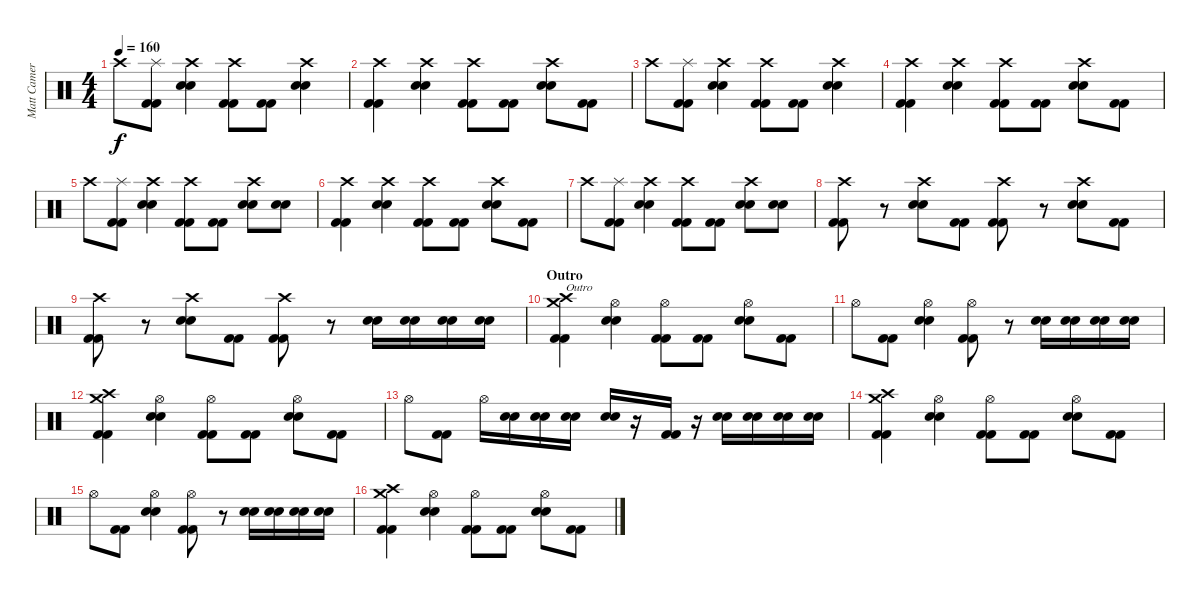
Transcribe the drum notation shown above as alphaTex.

\track ("Matt Cameron" "Matt Camer") {instrument percussion}
\staff {score}
\articulation defaults
\ts (4 4)
\tempo 160
\clef neutral
\ks c "Crash high (hit)".8{dy f}
("Kick (hit) 2" "Kick (hit) 2" "Splash (hit)").8 ("Electric Snare (hit)" "Electric Snare (hit)" "Crash high (hit)").4 ("Kick (hit) 2" "Kick (hit) 2" "Crash high (hit)").8 ("Kick (hit) 2" "Kick (hit) 2").8 ("Electric Snare (hit)" "Electric Snare (hit)" "Crash high (hit)").4 |
("Kick (hit) 2" "Kick (hit) 2" "Crash high (hit)").4 ("Electric Snare (hit)" "Electric Snare (hit)" "Crash high (hit)").4 ("Kick (hit) 2" "Kick (hit) 2" "Crash high (hit)").8 ("Kick (hit) 2" "Kick (hit) 2").8 ("Electric Snare (hit)" "Electric Snare (hit)" "Crash high (hit)").8 ("Kick (hit) 2" "Kick (hit) 2").8 |
"Crash high (hit)".8 ("Kick (hit) 2" "Kick (hit) 2" "Splash (hit)").8 ("Electric Snare (hit)" "Electric Snare (hit)" "Crash high (hit)").4 ("Kick (hit) 2" "Kick (hit) 2" "Crash high (hit)").8 ("Kick (hit) 2" "Kick (hit) 2").8 ("Electric Snare (hit)" "Electric Snare (hit)" "Crash high (hit)").4 |
("Kick (hit) 2" "Kick (hit) 2" "Crash high (hit)").4 ("Electric Snare (hit)" "Electric Snare (hit)" "Crash high (hit)").4 ("Kick (hit) 2" "Kick (hit) 2" "Crash high (hit)").8 ("Kick (hit) 2" "Kick (hit) 2").8 ("Electric Snare (hit)" "Electric Snare (hit)" "Crash high (hit)").8 ("Kick (hit) 2" "Kick (hit) 2").8 |
"Crash high (hit)".8 ("Kick (hit) 2" "Kick (hit) 2" "Splash (hit)").8 ("Electric Snare (hit)" "Electric Snare (hit)" "Crash high (hit)").4 ("Kick (hit) 2" "Kick (hit) 2" "Crash high (hit)").8 ("Kick (hit) 2" "Kick (hit) 2").8 ("Electric Snare (hit)" "Electric Snare (hit)" "Crash high (hit)").8 ("Electric Snare (hit)" "Electric Snare (hit)").8 |
("Kick (hit) 2" "Kick (hit) 2" "Crash high (hit)").4 ("Electric Snare (hit)" "Electric Snare (hit)" "Crash high (hit)").4 ("Kick (hit) 2" "Kick (hit) 2" "Crash high (hit)").8 ("Kick (hit) 2" "Kick (hit) 2").8 ("Electric Snare (hit)" "Electric Snare (hit)" "Crash high (hit)").8 ("Kick (hit) 2" "Kick (hit) 2").8 |
"Crash high (hit)".8 ("Kick (hit) 2" "Kick (hit) 2" "Splash (hit)").8 ("Electric Snare (hit)" "Electric Snare (hit)" "Crash high (hit)").4 ("Kick (hit) 2" "Kick (hit) 2" "Crash high (hit)").8 ("Kick (hit) 2" "Kick (hit) 2").8 ("Electric Snare (hit)" "Electric Snare (hit)" "Crash high (hit)").8 ("Electric Snare (hit)" "Electric Snare (hit)").8 |
("Kick (hit) 2" "Kick (hit) 2" "Crash high (hit)").8 r.8 ("Electric Snare (hit)" "Electric Snare (hit)" "Crash high (hit)").8 ("Kick (hit) 2" "Kick (hit) 2").8 ("Kick (hit) 2" "Kick (hit) 2" "Crash high (hit)").8 r.8 ("Electric Snare (hit)" "Electric Snare (hit)" "Crash high (hit)").8 ("Kick (hit) 2" "Kick (hit) 2").8 |
("Kick (hit) 2" "Kick (hit) 2" "Crash high (hit)").8 r.8 ("Electric Snare (hit)" "Electric Snare (hit)" "Crash high (hit)").8 ("Kick (hit) 2" "Kick (hit) 2").8 ("Kick (hit) 2" "Kick (hit) 2" "Crash high (hit)").8 r.8 ("Electric Snare (hit)" "Electric Snare (hit)").16 ("Electric Snare (hit)" "Electric Snare (hit)").16 ("Electric Snare (hit)" "Electric Snare (hit)").16 ("Electric Snare (hit)" "Electric Snare (hit)").16 |
\section ("" "Outro")
("Crash medium (hit)" "Kick (hit) 2" "Kick (hit) 2" "Crash high (hit)").4{txt "Outro"} ("Electric Snare (hit)" "Electric Snare (hit)" "Hi-Hat (open)").4 ("Kick (hit) 2" "Kick (hit) 2" "Hi-Hat (open)").8 ("Kick (hit) 2" "Kick (hit) 2").8 ("Electric Snare (hit)" "Electric Snare (hit)" "Hi-Hat (open)").8 ("Kick (hit) 2" "Kick (hit) 2").8 |
"Hi-Hat (open)".8 ("Kick (hit) 2" "Kick (hit) 2").8 ("Electric Snare (hit)" "Electric Snare (hit)" "Hi-Hat (open)").4 ("Kick (hit) 2" "Kick (hit) 2" "Hi-Hat (open)").8 r.8 ("Electric Snare (hit)" "Electric Snare (hit)").16 ("Electric Snare (hit)" "Electric Snare (hit)").16 ("Electric Snare (hit)" "Electric Snare (hit)").16 ("Electric Snare (hit)" "Electric Snare (hit)").16 |
("Crash medium (hit)" "Kick (hit) 2" "Kick (hit) 2" "Crash high (hit)").4 ("Electric Snare (hit)" "Electric Snare (hit)" "Hi-Hat (open)").4 ("Kick (hit) 2" "Kick (hit) 2" "Hi-Hat (open)").8 ("Kick (hit) 2" "Kick (hit) 2").8 ("Electric Snare (hit)" "Electric Snare (hit)" "Hi-Hat (open)").8 ("Kick (hit) 2" "Kick (hit) 2").8 |
"Hi-Hat (open)".8 ("Kick (hit) 2" "Kick (hit) 2").8 "Hi-Hat (open)".16 ("Electric Snare (hit)" "Electric Snare (hit)").16 ("Electric Snare (hit)" "Electric Snare (hit)").16 ("Electric Snare (hit)" "Electric Snare (hit)").16 ("Electric Snare (hit)" "Electric Snare (hit)").16 r.16 ("Kick (hit) 2" "Kick (hit) 2").16 r.16 ("Electric Snare (hit)" "Electric Snare (hit)").16 ("Electric Snare (hit)" "Electric Snare (hit)").16 ("Electric Snare (hit)" "Electric Snare (hit)").16 ("Electric Snare (hit)" "Electric Snare (hit)").16 |
("Crash medium (hit)" "Kick (hit) 2" "Kick (hit) 2" "Crash high (hit)").4 ("Electric Snare (hit)" "Electric Snare (hit)" "Hi-Hat (open)").4 ("Kick (hit) 2" "Kick (hit) 2" "Hi-Hat (open)").8 ("Kick (hit) 2" "Kick (hit) 2").8 ("Electric Snare (hit)" "Electric Snare (hit)" "Hi-Hat (open)").8 ("Kick (hit) 2" "Kick (hit) 2").8 |
"Hi-Hat (open)".8 ("Kick (hit) 2" "Kick (hit) 2").8 ("Electric Snare (hit)" "Electric Snare (hit)" "Hi-Hat (open)").4 ("Kick (hit) 2" "Kick (hit) 2" "Hi-Hat (open)").8 r.8 ("Electric Snare (hit)" "Electric Snare (hit)").16 ("Electric Snare (hit)" "Electric Snare (hit)").16 ("Electric Snare (hit)" "Electric Snare (hit)").16 ("Electric Snare (hit)" "Electric Snare (hit)").16 |
("Crash medium (hit)" "Kick (hit) 2" "Kick (hit) 2" "Crash high (hit)").4 ("Electric Snare (hit)" "Electric Snare (hit)" "Hi-Hat (open)").4 ("Kick (hit) 2" "Kick (hit) 2" "Hi-Hat (open)").8 ("Kick (hit) 2" "Kick (hit) 2").8 ("Electric Snare (hit)" "Electric Snare (hit)" "Hi-Hat (open)").8 ("Kick (hit) 2" "Kick (hit) 2").8
